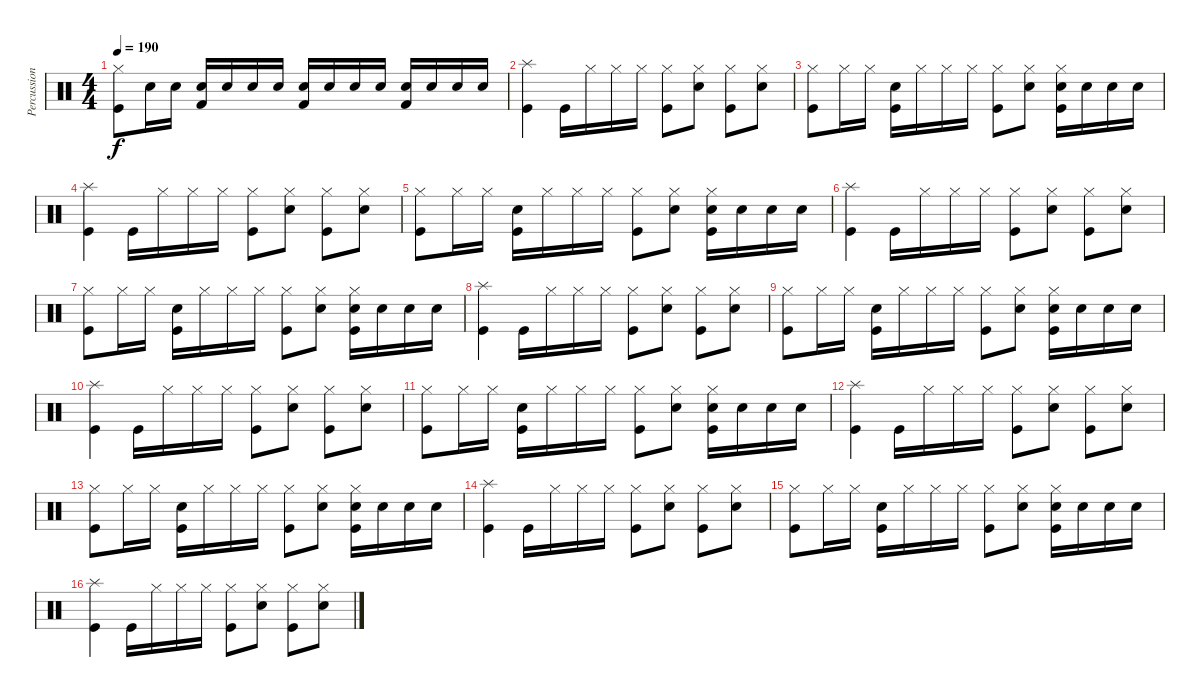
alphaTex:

\track ("Percussions" "Percussion") {instrument percussion}
\staff {score}
\articulation defaults
\ts (4 4)
\tempo 190
\clef neutral
\ks c
("Hi-Hat (closed)" "Kick (hit)").8{dy f} "Snare (hit) 2".16 "Snare (hit) 2".16 ("Snare (hit) 2" "Kick (hit) 2").16 "Snare (hit) 2".16 "Snare (hit) 2".16 "Snare (hit) 2".16 ("Snare (hit) 2" "Kick (hit) 2").16 "Snare (hit) 2".16 "Snare (hit) 2".16 "Snare (hit) 2".16 ("Snare (hit) 2" "Kick (hit) 2").16 "Snare (hit) 2".16 "Snare (hit) 2".16 "Snare (hit) 2".16 |
("Splash (hit)" "Kick (hit)").4 "Kick (hit)".16 "Hi-Hat (closed)".16 "Hi-Hat (closed)".16 "Hi-Hat (closed)".16 ("Hi-Hat (closed)" "Kick (hit)").8 ("Hi-Hat (closed)" "Snare (hit) 2").8 ("Hi-Hat (closed)" "Kick (hit)").8 ("Hi-Hat (closed)" "Snare (hit) 2").8 |
("Hi-Hat (closed)" "Kick (hit)").8 "Hi-Hat (closed)".16 "Hi-Hat (closed)".16 ("Snare (hit) 2" "Kick (hit)").16 "Hi-Hat (closed)".16 "Hi-Hat (closed)".16 "Hi-Hat (closed)".16 ("Hi-Hat (closed)" "Kick (hit)").8 ("Hi-Hat (closed)" "Snare (hit) 2").8 ("Hi-Hat (closed)" "Snare (hit) 2" "Kick (hit)").16 "Snare (hit) 2".16 "Snare (hit) 2".16 "Snare (hit) 2".16 |
("Splash (hit)" "Kick (hit)").4 "Kick (hit)".16 "Hi-Hat (closed)".16 "Hi-Hat (closed)".16 "Hi-Hat (closed)".16 ("Hi-Hat (closed)" "Kick (hit)").8 ("Hi-Hat (closed)" "Snare (hit) 2").8 ("Hi-Hat (closed)" "Kick (hit)").8 ("Hi-Hat (closed)" "Snare (hit) 2").8 |
("Hi-Hat (closed)" "Kick (hit)").8 "Hi-Hat (closed)".16 "Hi-Hat (closed)".16 ("Snare (hit) 2" "Kick (hit)").16 "Hi-Hat (closed)".16 "Hi-Hat (closed)".16 "Hi-Hat (closed)".16 ("Hi-Hat (closed)" "Kick (hit)").8 ("Hi-Hat (closed)" "Snare (hit) 2").8 ("Hi-Hat (closed)" "Snare (hit) 2" "Kick (hit)").16 "Snare (hit) 2".16 "Snare (hit) 2".16 "Snare (hit) 2".16 |
("Splash (hit)" "Kick (hit)").4 "Kick (hit)".16 "Hi-Hat (closed)".16 "Hi-Hat (closed)".16 "Hi-Hat (closed)".16 ("Hi-Hat (closed)" "Kick (hit)").8 ("Hi-Hat (closed)" "Snare (hit) 2").8 ("Hi-Hat (closed)" "Kick (hit)").8 ("Hi-Hat (closed)" "Snare (hit) 2").8 |
("Hi-Hat (closed)" "Kick (hit)").8 "Hi-Hat (closed)".16 "Hi-Hat (closed)".16 ("Snare (hit) 2" "Kick (hit)").16 "Hi-Hat (closed)".16 "Hi-Hat (closed)".16 "Hi-Hat (closed)".16 ("Hi-Hat (closed)" "Kick (hit)").8 ("Hi-Hat (closed)" "Snare (hit) 2").8 ("Hi-Hat (closed)" "Snare (hit) 2" "Kick (hit)").16 "Snare (hit) 2".16 "Snare (hit) 2".16 "Snare (hit) 2".16 |
("Splash (hit)" "Kick (hit)").4 "Kick (hit)".16 "Hi-Hat (closed)".16 "Hi-Hat (closed)".16 "Hi-Hat (closed)".16 ("Hi-Hat (closed)" "Kick (hit)").8 ("Hi-Hat (closed)" "Snare (hit) 2").8 ("Hi-Hat (closed)" "Kick (hit)").8 ("Hi-Hat (closed)" "Snare (hit) 2").8 |
("Hi-Hat (closed)" "Kick (hit)").8 "Hi-Hat (closed)".16 "Hi-Hat (closed)".16 ("Snare (hit) 2" "Kick (hit)").16 "Hi-Hat (closed)".16 "Hi-Hat (closed)".16 "Hi-Hat (closed)".16 ("Hi-Hat (closed)" "Kick (hit)").8 ("Hi-Hat (closed)" "Snare (hit) 2").8 ("Hi-Hat (closed)" "Snare (hit) 2" "Kick (hit)").16 "Snare (hit) 2".16 "Snare (hit) 2".16 "Snare (hit) 2".16 |
("Splash (hit)" "Kick (hit)").4 "Kick (hit)".16 "Hi-Hat (closed)".16 "Hi-Hat (closed)".16 "Hi-Hat (closed)".16 ("Hi-Hat (closed)" "Kick (hit)").8 ("Hi-Hat (closed)" "Snare (hit) 2").8 ("Hi-Hat (closed)" "Kick (hit)").8 ("Hi-Hat (closed)" "Snare (hit) 2").8 |
("Hi-Hat (closed)" "Kick (hit)").8 "Hi-Hat (closed)".16 "Hi-Hat (closed)".16 ("Snare (hit) 2" "Kick (hit)").16 "Hi-Hat (closed)".16 "Hi-Hat (closed)".16 "Hi-Hat (closed)".16 ("Hi-Hat (closed)" "Kick (hit)").8 ("Hi-Hat (closed)" "Snare (hit) 2").8 ("Hi-Hat (closed)" "Snare (hit) 2" "Kick (hit)").16 "Snare (hit) 2".16 "Snare (hit) 2".16 "Snare (hit) 2".16 |
("Splash (hit)" "Kick (hit)").4 "Kick (hit)".16 "Hi-Hat (closed)".16 "Hi-Hat (closed)".16 "Hi-Hat (closed)".16 ("Hi-Hat (closed)" "Kick (hit)").8 ("Hi-Hat (closed)" "Snare (hit) 2").8 ("Hi-Hat (closed)" "Kick (hit)").8 ("Hi-Hat (closed)" "Snare (hit) 2").8 |
("Hi-Hat (closed)" "Kick (hit)").8 "Hi-Hat (closed)".16 "Hi-Hat (closed)".16 ("Snare (hit) 2" "Kick (hit)").16 "Hi-Hat (closed)".16 "Hi-Hat (closed)".16 "Hi-Hat (closed)".16 ("Hi-Hat (closed)" "Kick (hit)").8 ("Hi-Hat (closed)" "Snare (hit) 2").8 ("Hi-Hat (closed)" "Snare (hit) 2" "Kick (hit)").16 "Snare (hit) 2".16 "Snare (hit) 2".16 "Snare (hit) 2".16 |
("Splash (hit)" "Kick (hit)").4 "Kick (hit)".16 "Hi-Hat (closed)".16 "Hi-Hat (closed)".16 "Hi-Hat (closed)".16 ("Hi-Hat (closed)" "Kick (hit)").8 ("Hi-Hat (closed)" "Snare (hit) 2").8 ("Hi-Hat (closed)" "Kick (hit)").8 ("Hi-Hat (closed)" "Snare (hit) 2").8 |
("Hi-Hat (closed)" "Kick (hit)").8 "Hi-Hat (closed)".16 "Hi-Hat (closed)".16 ("Snare (hit) 2" "Kick (hit)").16 "Hi-Hat (closed)".16 "Hi-Hat (closed)".16 "Hi-Hat (closed)".16 ("Hi-Hat (closed)" "Kick (hit)").8 ("Hi-Hat (closed)" "Snare (hit) 2").8 ("Hi-Hat (closed)" "Snare (hit) 2" "Kick (hit)").16 "Snare (hit) 2".16 "Snare (hit) 2".16 "Snare (hit) 2".16 |
("Splash (hit)" "Kick (hit)").4 "Kick (hit)".16 "Hi-Hat (closed)".16 "Hi-Hat (closed)".16 "Hi-Hat (closed)".16 ("Hi-Hat (closed)" "Kick (hit)").8 ("Hi-Hat (closed)" "Snare (hit) 2").8 ("Hi-Hat (closed)" "Kick (hit)").8 ("Hi-Hat (closed)" "Snare (hit) 2").8
